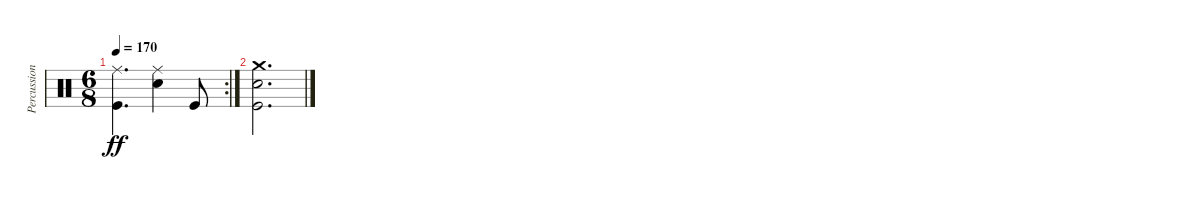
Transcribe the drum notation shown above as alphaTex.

\track ("Percussion" "Percussion") {instrument percussion}
\staff {score}
\articulation defaults
\rc 2
\ts (6 8)
\tempo 170
\clef neutral
\ks c
("Ride (middle)" "Kick (hit)").4{d dy ff} ("Ride (middle)" "Snare (hit) 2").4 "Kick (hit)".8 |
("Crash medium (hit)" "Snare (hit) 2" "Kick (hit)").2{d}
